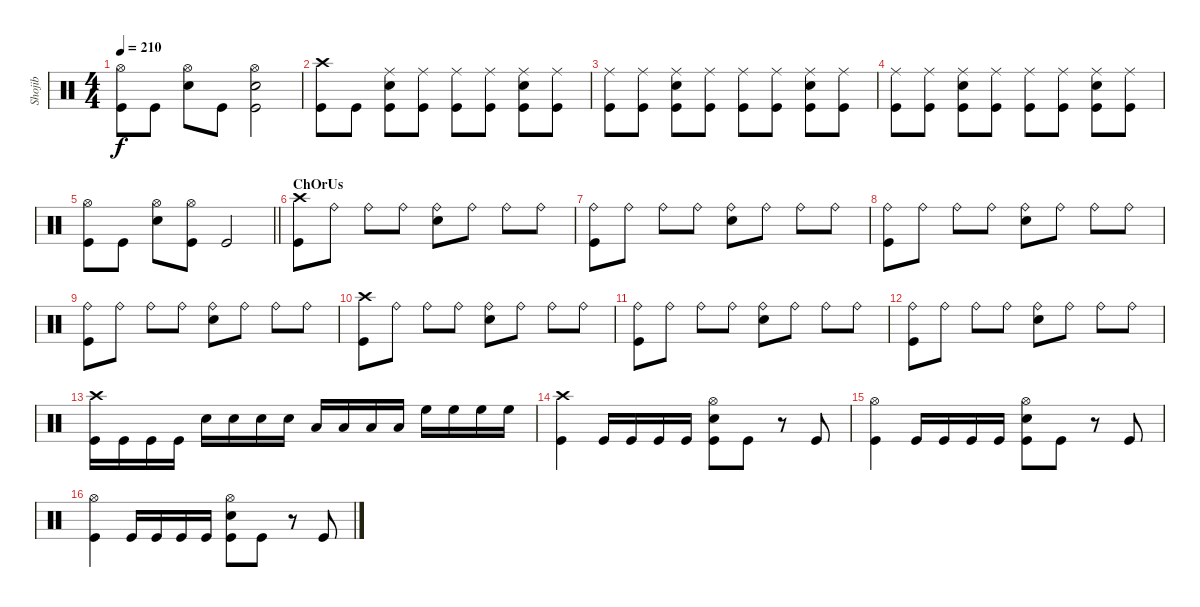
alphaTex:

\track ("Shojib" "Shojib") {instrument percussion}
\staff {score}
\articulation defaults
\ts (4 4)
\tempo 210
\clef neutral
\ks c
("Hi-Hat (open)" "Kick (hit)").8{dy f} "Kick (hit)".8 ("Hi-Hat (open)" "Electric Snare (hit)").8 "Kick (hit)".8 ("Hi-Hat (open)" "Electric Snare (hit)" "Kick (hit)").2 |
("Crash high (hit)" "Kick (hit)").8 "Kick (hit)".8 ("Ride (middle)" "Electric Snare (hit)" "Kick (hit)").8 ("Ride (middle)" "Kick (hit)").8 ("Ride (middle)" "Kick (hit)").8 ("Ride (middle)" "Kick (hit)").8 ("Ride (middle)" "Electric Snare (hit)" "Kick (hit)").8 ("Ride (middle)" "Kick (hit)").8 |
("Ride (middle)" "Kick (hit)").8 ("Ride (middle)" "Kick (hit)").8 ("Ride (middle)" "Electric Snare (hit)" "Kick (hit)").8 ("Ride (middle)" "Kick (hit)").8 ("Ride (middle)" "Kick (hit)").8 ("Ride (middle)" "Kick (hit)").8 ("Ride (middle)" "Electric Snare (hit)" "Kick (hit)").8 ("Ride (middle)" "Kick (hit)").8 |
("Ride (middle)" "Kick (hit)").8 ("Ride (middle)" "Kick (hit)").8 ("Ride (middle)" "Electric Snare (hit)" "Kick (hit)").8 ("Ride (middle)" "Kick (hit)").8 ("Ride (middle)" "Kick (hit)").8 ("Ride (middle)" "Kick (hit)").8 ("Ride (middle)" "Electric Snare (hit)" "Kick (hit)").8 ("Ride (middle)" "Kick (hit)").8 |
\barLineRight lightlight
("Hi-Hat (open)" "Kick (hit)").8 "Kick (hit)".8 ("Hi-Hat (open)" "Electric Snare (hit)").8 ("Hi-Hat (open)" "Kick (hit)").8 "Kick (hit)".2 |
\section ("" "ChOrUs")
("Crash high (hit)" "Kick (hit)").8 "Ride (bell)".8 "Ride (bell)".8 "Ride (bell)".8 ("Ride (bell)" "Electric Snare (hit)").8 "Ride (bell)".8 "Ride (bell)".8 "Ride (bell)".8 |
("Ride (bell)" "Kick (hit)").8 "Ride (bell)".8 "Ride (bell)".8 "Ride (bell)".8 ("Ride (bell)" "Electric Snare (hit)").8 "Ride (bell)".8 "Ride (bell)".8 "Ride (bell)".8 |
("Ride (bell)" "Kick (hit)").8 "Ride (bell)".8 "Ride (bell)".8 "Ride (bell)".8 ("Ride (bell)" "Electric Snare (hit)").8 "Ride (bell)".8 "Ride (bell)".8 "Ride (bell)".8 |
("Ride (bell)" "Kick (hit)").8 "Ride (bell)".8 "Ride (bell)".8 "Ride (bell)".8 ("Ride (bell)" "Electric Snare (hit)").8 "Ride (bell)".8 "Ride (bell)".8 "Ride (bell)".8 |
("Crash high (hit)" "Kick (hit)").8 "Ride (bell)".8 "Ride (bell)".8 "Ride (bell)".8 ("Ride (bell)" "Electric Snare (hit)").8 "Ride (bell)".8 "Ride (bell)".8 "Ride (bell)".8 |
("Ride (bell)" "Kick (hit)").8 "Ride (bell)".8 "Ride (bell)".8 "Ride (bell)".8 ("Ride (bell)" "Electric Snare (hit)").8 "Ride (bell)".8 "Ride (bell)".8 "Ride (bell)".8 |
("Ride (bell)" "Kick (hit)").8 "Ride (bell)".8 "Ride (bell)".8 "Ride (bell)".8 ("Ride (bell)" "Electric Snare (hit)").8 "Ride (bell)".8 "Ride (bell)".8 "Ride (bell)".8 |
("Crash high (hit)" "Kick (hit)").16 "Kick (hit)".16 "Kick (hit)".16 "Kick (hit)".16 "Electric Snare (hit)".16 "Electric Snare (hit)".16 "Electric Snare (hit)".16 "Electric Snare (hit)".16 "Low Floor Tom (hit)".16 "Low Floor Tom (hit)".16 "Low Floor Tom (hit)".16 "Low Floor Tom (hit)".16 "High Floor Tom (hit)".16 "High Floor Tom (hit)".16 "High Floor Tom (hit)".16 "High Floor Tom (hit)".16 |
("Crash high (hit)" "Kick (hit)").4 "Kick (hit)".16 "Kick (hit)".16 "Kick (hit)".16 "Kick (hit)".16 ("Hi-Hat (open)" "Electric Snare (hit)" "Kick (hit)").8 "Kick (hit)".8 r.8 "Kick (hit)".8 |
("Hi-Hat (open)" "Kick (hit)").4 "Kick (hit)".16 "Kick (hit)".16 "Kick (hit)".16 "Kick (hit)".16 ("Hi-Hat (open)" "Electric Snare (hit)" "Kick (hit)").8 "Kick (hit)".8 r.8 "Kick (hit)".8 |
("Hi-Hat (open)" "Kick (hit)").4 "Kick (hit)".16 "Kick (hit)".16 "Kick (hit)".16 "Kick (hit)".16 ("Hi-Hat (open)" "Electric Snare (hit)" "Kick (hit)").8 "Kick (hit)".8 r.8 "Kick (hit)".8
